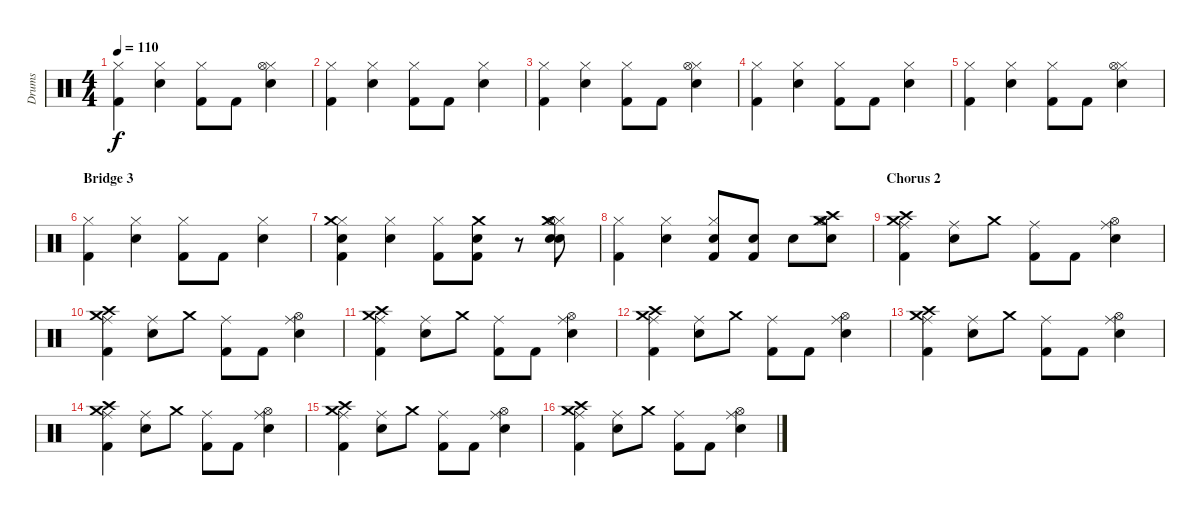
\track ("Drums" "Drums") {instrument percussion}
\staff {score}
\articulation defaults
\ts (4 4)
\tempo 110
\clef neutral
\ks c
("Kick (hit) 2" "Hi-Hat (closed)").4{dy f} ("Snare (hit) 2" "Hi-Hat (closed)").4 ("Kick (hit) 2" "Hi-Hat (closed)").8 "Kick (hit) 2".8 ("Snare (hit) 2" "Hi-Hat (closed)" "Hi-Hat (open)").4 |
("Kick (hit) 2" "Hi-Hat (closed)").4 ("Snare (hit) 2" "Hi-Hat (closed)").4 ("Kick (hit) 2" "Hi-Hat (closed)").8 "Kick (hit) 2".8 ("Snare (hit) 2" "Hi-Hat (closed)").4 |
("Kick (hit) 2" "Hi-Hat (closed)").4 ("Snare (hit) 2" "Hi-Hat (closed)").4 ("Kick (hit) 2" "Hi-Hat (closed)").8 "Kick (hit) 2".8 ("Snare (hit) 2" "Hi-Hat (closed)" "Hi-Hat (open)").4 |
("Kick (hit) 2" "Hi-Hat (closed)").4 ("Snare (hit) 2" "Hi-Hat (closed)").4 ("Kick (hit) 2" "Hi-Hat (closed)").8 "Kick (hit) 2".8 ("Snare (hit) 2" "Hi-Hat (closed)").4 |
("Kick (hit) 2" "Hi-Hat (closed)").4 ("Snare (hit) 2" "Hi-Hat (closed)").4 ("Kick (hit) 2" "Hi-Hat (closed)").8 "Kick (hit) 2".8 ("Snare (hit) 2" "Hi-Hat (closed)" "Hi-Hat (open)").4 |
\section ("" "Bridge 3")
("Kick (hit) 2" "Hi-Hat (closed)").4 ("Snare (hit) 2" "Hi-Hat (closed)").4 ("Kick (hit) 2" "Hi-Hat (closed)").8 "Kick (hit) 2".8 ("Snare (hit) 2" "Hi-Hat (closed)").4 |
("Kick (hit) 2" "Hi-Hat (closed)" "Snare (hit) 2" "Crash medium (hit)").4 ("Snare (hit) 2" "Hi-Hat (closed)").4 ("Kick (hit) 2" "Hi-Hat (closed)").8 ("Kick (hit) 2" "Snare (hit) 2" "Crash medium (hit)").8 r.8 ("Snare (hit) 2" "Hi-Hat (closed)" "Snare (hit) 2" "Crash medium (hit)" "Hi-Hat (open)").8 |
("Kick (hit) 2" "Hi-Hat (closed)").4 ("Snare (hit) 2" "Hi-Hat (closed)").4 ("Kick (hit) 2" "Hi-Hat (closed)" "Snare (hit) 2").8 ("Kick (hit) 2" "Snare (hit) 2").8 "Snare (hit) 2".8 ("Snare (hit) 2" "Hi-Hat (closed)" "Crash high (hit)" "Crash medium (hit)" "Hi-Hat (open)").8 |
\section ("" "Chorus 2")
("Kick (hit) 2" "Ride (middle)" "Crash high (hit)" "Crash medium (hit)").4 ("Snare (hit) 2" "Ride (middle)").8 "Crash medium (hit)".8 ("Kick (hit) 2" "Ride (middle)").8 "Kick (hit) 2".8 ("Snare (hit) 2" "Ride (middle)" "Hi-Hat (open)").4 |
("Kick (hit) 2" "Ride (middle)" "Crash high (hit)" "Crash medium (hit)").4 ("Snare (hit) 2" "Ride (middle)").8 "Crash medium (hit)".8 ("Kick (hit) 2" "Ride (middle)").8 "Kick (hit) 2".8 ("Snare (hit) 2" "Ride (middle)" "Hi-Hat (open)").4 |
("Kick (hit) 2" "Ride (middle)" "Crash high (hit)" "Crash medium (hit)").4 ("Snare (hit) 2" "Ride (middle)").8 "Crash medium (hit)".8 ("Kick (hit) 2" "Ride (middle)").8 "Kick (hit) 2".8 ("Snare (hit) 2" "Ride (middle)" "Hi-Hat (open)").4 |
("Kick (hit) 2" "Ride (middle)" "Crash high (hit)" "Crash medium (hit)").4 ("Snare (hit) 2" "Ride (middle)").8 "Crash medium (hit)".8 ("Kick (hit) 2" "Ride (middle)").8 "Kick (hit) 2".8 ("Snare (hit) 2" "Ride (middle)" "Hi-Hat (open)").4 |
("Kick (hit) 2" "Ride (middle)" "Crash high (hit)" "Crash medium (hit)").4 ("Snare (hit) 2" "Ride (middle)").8 "Crash medium (hit)".8 ("Kick (hit) 2" "Ride (middle)").8 "Kick (hit) 2".8 ("Snare (hit) 2" "Ride (middle)" "Hi-Hat (open)").4 |
("Kick (hit) 2" "Ride (middle)" "Crash high (hit)" "Crash medium (hit)").4 ("Snare (hit) 2" "Ride (middle)").8 "Crash medium (hit)".8 ("Kick (hit) 2" "Ride (middle)").8 "Kick (hit) 2".8 ("Snare (hit) 2" "Ride (middle)" "Hi-Hat (open)").4 |
("Kick (hit) 2" "Ride (middle)" "Crash high (hit)" "Crash medium (hit)").4 ("Snare (hit) 2" "Ride (middle)").8 "Crash medium (hit)".8 ("Kick (hit) 2" "Ride (middle)").8 "Kick (hit) 2".8 ("Snare (hit) 2" "Ride (middle)" "Hi-Hat (open)").4 |
("Kick (hit) 2" "Ride (middle)" "Crash high (hit)" "Crash medium (hit)").4 ("Snare (hit) 2" "Ride (middle)").8 "Crash medium (hit)".8 ("Kick (hit) 2" "Ride (middle)").8 "Kick (hit) 2".8 ("Snare (hit) 2" "Ride (middle)" "Hi-Hat (open)").4
